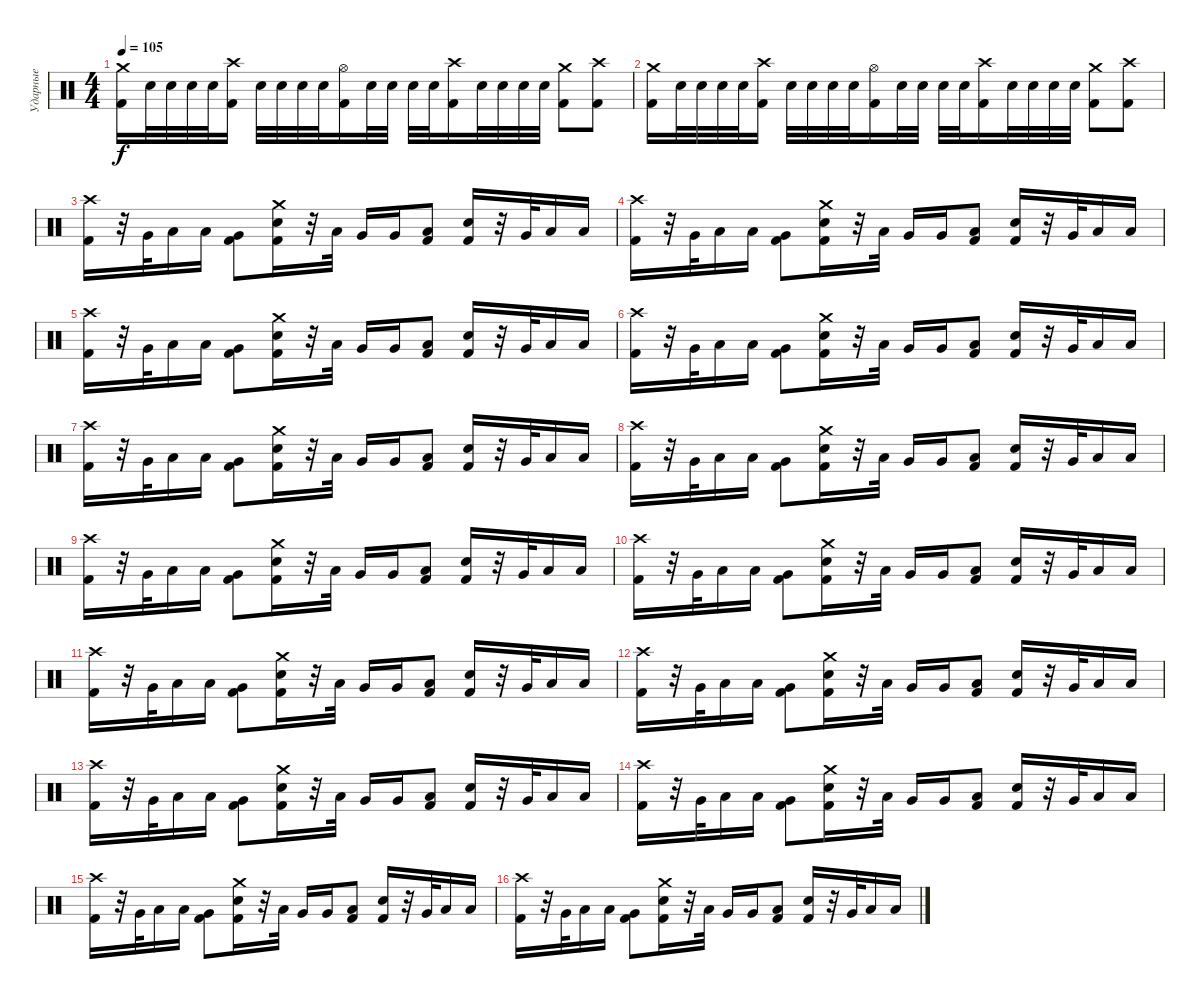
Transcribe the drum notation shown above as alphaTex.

\track ("Ударные" "Ударные") {instrument percussion}
\staff {score}
\articulation defaults
\ts (4 4)
\tempo 105
\clef neutral
\ks c
("Crash medium (hit)" "Kick (hit) 2").16{dy f} "Electric Snare (hit)".32 "Electric Snare (hit)".32 "Electric Snare (hit)".32 "Electric Snare (hit)".32 ("Crash high (hit)" "Kick (hit) 2").16 "Electric Snare (hit)".32 "Electric Snare (hit)".32 "Electric Snare (hit)".32 "Electric Snare (hit)".32 ("Hi-Hat (open)" "Kick (hit) 2").16 "Electric Snare (hit)".32 "Electric Snare (hit)".32 "Electric Snare (hit)".32 "Electric Snare (hit)".32 ("Crash high (hit)" "Kick (hit) 2").16 "Electric Snare (hit)".32 "Electric Snare (hit)".32 "Electric Snare (hit)".32 "Electric Snare (hit)".32 ("Crash medium (hit)" "Kick (hit) 2").8 ("Crash high (hit)" "Kick (hit) 2").8 |
("Crash medium (hit)" "Kick (hit) 2").16 "Electric Snare (hit)".32 "Electric Snare (hit)".32 "Electric Snare (hit)".32 "Electric Snare (hit)".32 ("Crash high (hit)" "Kick (hit) 2").16 "Electric Snare (hit)".32 "Electric Snare (hit)".32 "Electric Snare (hit)".32 "Electric Snare (hit)".32 ("Hi-Hat (open)" "Kick (hit) 2").16 "Electric Snare (hit)".32 "Electric Snare (hit)".32 "Electric Snare (hit)".32 "Electric Snare (hit)".32 ("Crash high (hit)" "Kick (hit) 2").16 "Electric Snare (hit)".32 "Electric Snare (hit)".32 "Electric Snare (hit)".32 "Electric Snare (hit)".32 ("Crash medium (hit)" "Kick (hit) 2").8 ("Crash high (hit)" "Kick (hit) 2").8 |
("Crash high (hit)" "Kick (hit) 2").16 r.32 "Very Low Tom (hit)".32 "Low Floor Tom (hit)".16 "Low Tom (hit)".16 ("Very Low Tom (hit)" "Kick (hit) 2").8 ("Crash medium (hit)" "Electric Snare (hit)" "Kick (hit) 2").16 r.32 "Low Tom (hit)".32 "Very Low Tom (hit)".16 "Very Low Tom (hit)".16 ("Low Floor Tom (hit)" "Kick (hit) 2").8 ("Electric Snare (hit)" "Kick (hit) 2").16 r.32 "Very Low Tom (hit)".32 "Low Floor Tom (hit)".16 "Low Tom (hit)".16 |
("Crash high (hit)" "Kick (hit) 2").16 r.32 "Very Low Tom (hit)".32 "Low Floor Tom (hit)".16 "Low Tom (hit)".16 ("Very Low Tom (hit)" "Kick (hit) 2").8 ("Crash medium (hit)" "Electric Snare (hit)" "Kick (hit) 2").16 r.32 "Low Tom (hit)".32 "Very Low Tom (hit)".16 "Very Low Tom (hit)".16 ("Low Floor Tom (hit)" "Kick (hit) 2").8 ("Electric Snare (hit)" "Kick (hit) 2").16 r.32 "Very Low Tom (hit)".32 "Low Floor Tom (hit)".16 "Low Tom (hit)".16 |
("Crash high (hit)" "Kick (hit) 2").16 r.32 "Very Low Tom (hit)".32 "Low Floor Tom (hit)".16 "Low Tom (hit)".16 ("Very Low Tom (hit)" "Kick (hit) 2").8 ("Crash medium (hit)" "Electric Snare (hit)" "Kick (hit) 2").16 r.32 "Low Tom (hit)".32 "Very Low Tom (hit)".16 "Very Low Tom (hit)".16 ("Low Floor Tom (hit)" "Kick (hit) 2").8 ("Electric Snare (hit)" "Kick (hit) 2").16 r.32 "Very Low Tom (hit)".32 "Low Floor Tom (hit)".16 "Low Tom (hit)".16 |
("Crash high (hit)" "Kick (hit) 2").16 r.32 "Very Low Tom (hit)".32 "Low Floor Tom (hit)".16 "Low Tom (hit)".16 ("Very Low Tom (hit)" "Kick (hit) 2").8 ("Crash medium (hit)" "Electric Snare (hit)" "Kick (hit) 2").16 r.32 "Low Tom (hit)".32 "Very Low Tom (hit)".16 "Very Low Tom (hit)".16 ("Low Floor Tom (hit)" "Kick (hit) 2").8 ("Electric Snare (hit)" "Kick (hit) 2").16 r.32 "Very Low Tom (hit)".32 "Low Floor Tom (hit)".16 "Low Tom (hit)".16 |
("Crash high (hit)" "Kick (hit) 2").16 r.32 "Very Low Tom (hit)".32 "Low Floor Tom (hit)".16 "Low Tom (hit)".16 ("Very Low Tom (hit)" "Kick (hit) 2").8 ("Crash medium (hit)" "Electric Snare (hit)" "Kick (hit) 2").16 r.32 "Low Tom (hit)".32 "Very Low Tom (hit)".16 "Very Low Tom (hit)".16 ("Low Floor Tom (hit)" "Kick (hit) 2").8 ("Electric Snare (hit)" "Kick (hit) 2").16 r.32 "Very Low Tom (hit)".32 "Low Floor Tom (hit)".16 "Low Tom (hit)".16 |
("Crash high (hit)" "Kick (hit) 2").16 r.32 "Very Low Tom (hit)".32 "Low Floor Tom (hit)".16 "Low Tom (hit)".16 ("Very Low Tom (hit)" "Kick (hit) 2").8 ("Crash medium (hit)" "Electric Snare (hit)" "Kick (hit) 2").16 r.32 "Low Tom (hit)".32 "Very Low Tom (hit)".16 "Very Low Tom (hit)".16 ("Low Floor Tom (hit)" "Kick (hit) 2").8 ("Electric Snare (hit)" "Kick (hit) 2").16 r.32 "Very Low Tom (hit)".32 "Low Floor Tom (hit)".16 "Low Tom (hit)".16 |
("Crash high (hit)" "Kick (hit) 2").16 r.32 "Very Low Tom (hit)".32 "Low Floor Tom (hit)".16 "Low Tom (hit)".16 ("Very Low Tom (hit)" "Kick (hit) 2").8 ("Crash medium (hit)" "Electric Snare (hit)" "Kick (hit) 2").16 r.32 "Low Tom (hit)".32 "Very Low Tom (hit)".16 "Very Low Tom (hit)".16 ("Low Floor Tom (hit)" "Kick (hit) 2").8 ("Electric Snare (hit)" "Kick (hit) 2").16 r.32 "Very Low Tom (hit)".32 "Low Floor Tom (hit)".16 "Low Tom (hit)".16 |
("Crash high (hit)" "Kick (hit) 2").16 r.32 "Very Low Tom (hit)".32 "Low Floor Tom (hit)".16 "Low Tom (hit)".16 ("Very Low Tom (hit)" "Kick (hit) 2").8 ("Crash medium (hit)" "Electric Snare (hit)" "Kick (hit) 2").16 r.32 "Low Tom (hit)".32 "Very Low Tom (hit)".16 "Very Low Tom (hit)".16 ("Low Floor Tom (hit)" "Kick (hit) 2").8 ("Electric Snare (hit)" "Kick (hit) 2").16 r.32 "Very Low Tom (hit)".32 "Low Floor Tom (hit)".16 "Low Tom (hit)".16 |
("Crash high (hit)" "Kick (hit) 2").16 r.32 "Very Low Tom (hit)".32 "Low Floor Tom (hit)".16 "Low Tom (hit)".16 ("Very Low Tom (hit)" "Kick (hit) 2").8 ("Crash medium (hit)" "Electric Snare (hit)" "Kick (hit) 2").16 r.32 "Low Tom (hit)".32 "Very Low Tom (hit)".16 "Very Low Tom (hit)".16 ("Low Floor Tom (hit)" "Kick (hit) 2").8 ("Electric Snare (hit)" "Kick (hit) 2").16 r.32 "Very Low Tom (hit)".32 "Low Floor Tom (hit)".16 "Low Tom (hit)".16 |
("Crash high (hit)" "Kick (hit) 2").16 r.32 "Very Low Tom (hit)".32 "Low Floor Tom (hit)".16 "Low Tom (hit)".16 ("Very Low Tom (hit)" "Kick (hit) 2").8 ("Crash medium (hit)" "Electric Snare (hit)" "Kick (hit) 2").16 r.32 "Low Tom (hit)".32 "Very Low Tom (hit)".16 "Very Low Tom (hit)".16 ("Low Floor Tom (hit)" "Kick (hit) 2").8 ("Electric Snare (hit)" "Kick (hit) 2").16 r.32 "Very Low Tom (hit)".32 "Low Floor Tom (hit)".16 "Low Tom (hit)".16 |
("Crash high (hit)" "Kick (hit) 2").16 r.32 "Very Low Tom (hit)".32 "Low Floor Tom (hit)".16 "Low Tom (hit)".16 ("Very Low Tom (hit)" "Kick (hit) 2").8 ("Crash medium (hit)" "Electric Snare (hit)" "Kick (hit) 2").16 r.32 "Low Tom (hit)".32 "Very Low Tom (hit)".16 "Very Low Tom (hit)".16 ("Low Floor Tom (hit)" "Kick (hit) 2").8 ("Electric Snare (hit)" "Kick (hit) 2").16 r.32 "Very Low Tom (hit)".32 "Low Floor Tom (hit)".16 "Low Tom (hit)".16 |
("Crash high (hit)" "Kick (hit) 2").16 r.32 "Very Low Tom (hit)".32 "Low Floor Tom (hit)".16 "Low Tom (hit)".16 ("Very Low Tom (hit)" "Kick (hit) 2").8 ("Crash medium (hit)" "Electric Snare (hit)" "Kick (hit) 2").16 r.32 "Low Tom (hit)".32 "Very Low Tom (hit)".16 "Very Low Tom (hit)".16 ("Low Floor Tom (hit)" "Kick (hit) 2").8 ("Electric Snare (hit)" "Kick (hit) 2").16 r.32 "Very Low Tom (hit)".32 "Low Floor Tom (hit)".16 "Low Tom (hit)".16 |
("Crash high (hit)" "Kick (hit) 2").16 r.32 "Very Low Tom (hit)".32 "Low Floor Tom (hit)".16 "Low Tom (hit)".16 ("Very Low Tom (hit)" "Kick (hit) 2").8 ("Crash medium (hit)" "Electric Snare (hit)" "Kick (hit) 2").16 r.32 "Low Tom (hit)".32 "Very Low Tom (hit)".16 "Very Low Tom (hit)".16 ("Low Floor Tom (hit)" "Kick (hit) 2").8 ("Electric Snare (hit)" "Kick (hit) 2").16 r.32 "Very Low Tom (hit)".32 "Low Floor Tom (hit)".16 "Low Tom (hit)".16 |
("Crash high (hit)" "Kick (hit) 2").16 r.32 "Very Low Tom (hit)".32 "Low Floor Tom (hit)".16 "Low Tom (hit)".16 ("Very Low Tom (hit)" "Kick (hit) 2").8 ("Crash medium (hit)" "Electric Snare (hit)" "Kick (hit) 2").16 r.32 "Low Tom (hit)".32 "Very Low Tom (hit)".16 "Very Low Tom (hit)".16 ("Low Floor Tom (hit)" "Kick (hit) 2").8 ("Electric Snare (hit)" "Kick (hit) 2").16 r.32 "Very Low Tom (hit)".32 "Low Floor Tom (hit)".16 "Low Tom (hit)".16
